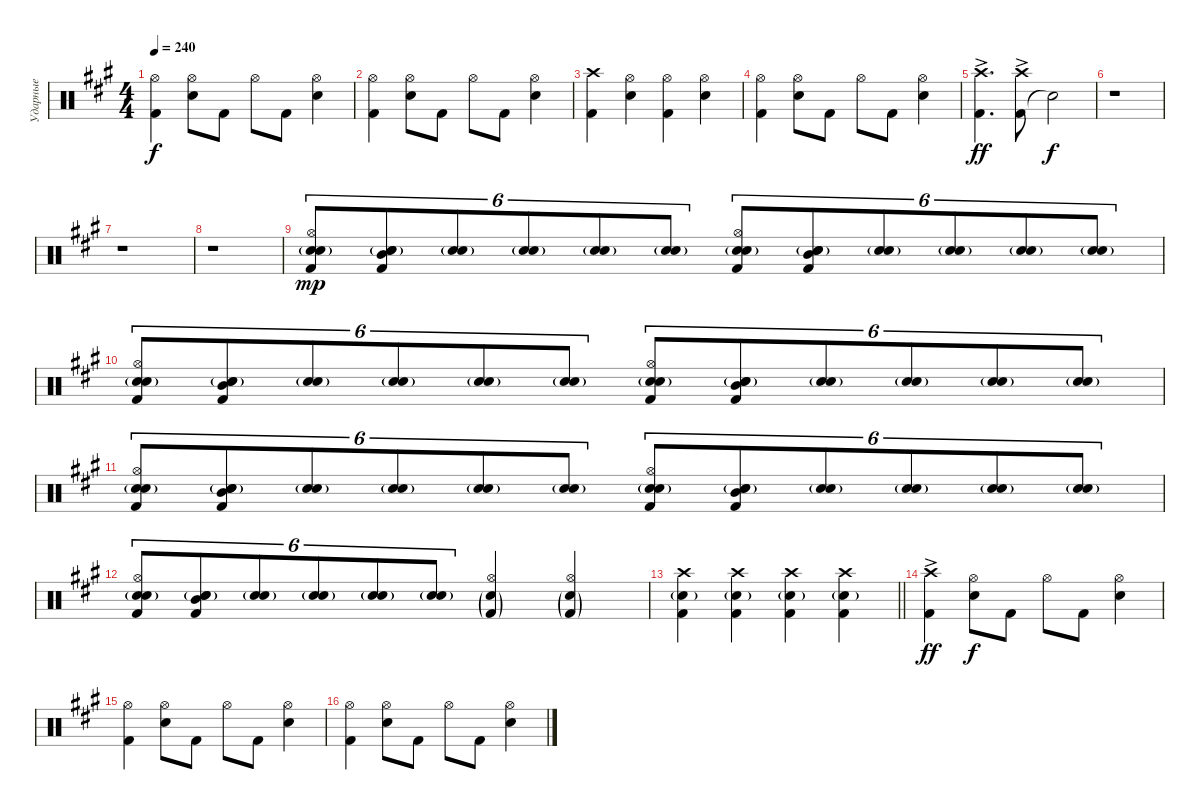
\track ("Ударные" "Ударные") {instrument percussion}
\staff {score}
\articulation defaults
\ts (4 4)
\tempo 240
\clef neutral
\ks a
("Kick (hit) 2" "Hi-Hat (open)").4{dy f} ("Snare (hit) 2" "Hi-Hat (open)").8 "Kick (hit) 2".8 "Hi-Hat (open)".8 "Kick (hit) 2".8 ("Snare (hit) 2" "Hi-Hat (open)").4 |
("Kick (hit) 2" "Hi-Hat (open)").4 ("Snare (hit) 2" "Hi-Hat (open)").8 "Kick (hit) 2".8 "Hi-Hat (open)".8 "Kick (hit) 2".8 ("Snare (hit) 2" "Hi-Hat (open)").4 |
("Kick (hit) 2" "Crash high (hit)").4 ("Snare (hit) 2" "Hi-Hat (open)").4 ("Kick (hit) 2" "Hi-Hat (open)").4 ("Snare (hit) 2" "Hi-Hat (open)").4 |
("Kick (hit) 2" "Hi-Hat (open)").4 ("Snare (hit) 2" "Hi-Hat (open)").8 "Kick (hit) 2".8 "Hi-Hat (open)".8 "Kick (hit) 2".8 ("Snare (hit) 2" "Hi-Hat (open)").4 |
("Kick (hit) 2" "Crash high (hit)"{ac}).4{d dy ff} ("Kick (hit) 2" "Crash high (hit)"{ac}).8 "Snare (hit)"{t}.2{dy f} |
r.1 |
r.1 |
r.1 |
("Snare (hit) 2"{g} "Electric Snare (hit)" "Hi-Hat (open)" "Kick (hit) 2").8{tu (6 4) dy mp} ("Snare (hit) 2"{g} "Electric Snare (hit)" "Mid Tom (hit)" "Kick (hit) 2").8{tu (6 4)} ("Snare (hit) 2"{g} "Electric Snare (hit)").8{tu (6 4)} ("Snare (hit) 2"{g} "Electric Snare (hit)").8{tu (6 4)} ("Snare (hit) 2"{g} "Electric Snare (hit)").8{tu (6 4)} ("Snare (hit) 2"{g} "Electric Snare (hit)").8{tu (6 4)} ("Snare (hit) 2"{g} "Electric Snare (hit)" "Hi-Hat (open)" "Kick (hit) 2").8{tu (6 4)} ("Snare (hit) 2"{g} "Electric Snare (hit)" "Mid Tom (hit)" "Kick (hit) 2").8{tu (6 4)} ("Snare (hit) 2"{g} "Electric Snare (hit)").8{tu (6 4)} ("Snare (hit) 2"{g} "Electric Snare (hit)").8{tu (6 4)} ("Snare (hit) 2"{g} "Electric Snare (hit)").8{tu (6 4)} ("Snare (hit) 2"{g} "Electric Snare (hit)").8{tu (6 4)} |
("Snare (hit) 2"{g} "Electric Snare (hit)" "Hi-Hat (open)" "Kick (hit) 2").8{tu (6 4)} ("Snare (hit) 2"{g} "Electric Snare (hit)" "Mid Tom (hit)" "Kick (hit) 2").8{tu (6 4)} ("Snare (hit) 2"{g} "Electric Snare (hit)").8{tu (6 4)} ("Snare (hit) 2"{g} "Electric Snare (hit)").8{tu (6 4)} ("Snare (hit) 2"{g} "Electric Snare (hit)").8{tu (6 4)} ("Snare (hit) 2"{g} "Electric Snare (hit)").8{tu (6 4)} ("Snare (hit) 2"{g} "Electric Snare (hit)" "Hi-Hat (open)" "Kick (hit) 2").8{tu (6 4)} ("Snare (hit) 2"{g} "Electric Snare (hit)" "Mid Tom (hit)" "Kick (hit) 2").8{tu (6 4)} ("Snare (hit) 2"{g} "Electric Snare (hit)").8{tu (6 4)} ("Snare (hit) 2"{g} "Electric Snare (hit)").8{tu (6 4)} ("Snare (hit) 2"{g} "Electric Snare (hit)").8{tu (6 4)} ("Snare (hit) 2"{g} "Electric Snare (hit)").8{tu (6 4)} |
("Snare (hit) 2"{g} "Electric Snare (hit)" "Hi-Hat (open)" "Kick (hit) 2").8{tu (6 4)} ("Snare (hit) 2"{g} "Electric Snare (hit)" "Mid Tom (hit)" "Kick (hit) 2").8{tu (6 4)} ("Snare (hit) 2"{g} "Electric Snare (hit)").8{tu (6 4)} ("Snare (hit) 2"{g} "Electric Snare (hit)").8{tu (6 4)} ("Snare (hit) 2"{g} "Electric Snare (hit)").8{tu (6 4)} ("Snare (hit) 2"{g} "Electric Snare (hit)").8{tu (6 4)} ("Snare (hit) 2"{g} "Electric Snare (hit)" "Hi-Hat (open)" "Kick (hit) 2").8{tu (6 4)} ("Snare (hit) 2"{g} "Electric Snare (hit)" "Mid Tom (hit)" "Kick (hit) 2").8{tu (6 4)} ("Snare (hit) 2"{g} "Electric Snare (hit)").8{tu (6 4)} ("Snare (hit) 2"{g} "Electric Snare (hit)").8{tu (6 4)} ("Snare (hit) 2"{g} "Electric Snare (hit)").8{tu (6 4)} ("Snare (hit) 2"{g} "Electric Snare (hit)").8{tu (6 4)} |
("Snare (hit) 2"{g} "Electric Snare (hit)" "Kick (hit) 2" "Hi-Hat (open)").8{tu (6 4)} ("Snare (hit) 2"{g} "Electric Snare (hit)" "Kick (hit) 2" "Mid Tom (hit)").8{tu (6 4)} ("Snare (hit) 2"{g} "Electric Snare (hit)").8{tu (6 4)} ("Snare (hit) 2"{g} "Electric Snare (hit)").8{tu (6 4)} ("Snare (hit) 2"{g} "Electric Snare (hit)").8{tu (6 4)} ("Snare (hit) 2"{g} "Electric Snare (hit)").8{tu (6 4)} ("Kick (hit) 2"{g} "Snare (hit) 2"{g} "Hi-Hat (open)").4 ("Kick (hit) 2"{g} "Snare (hit) 2"{g} "Hi-Hat (open)").4 |
\barLineRight lightlight
("Kick (hit) 2" "Snare (hit) 2"{g} "Crash high (hit)").4 ("Kick (hit) 2" "Snare (hit) 2"{g} "Crash high (hit)").4 ("Kick (hit) 2" "Snare (hit) 2"{g} "Crash high (hit)").4 ("Kick (hit) 2" "Snare (hit) 2"{g} "Crash high (hit)").4 |
("Kick (hit) 2" "Crash high (hit)"{ac}).4{dy ff} ("Snare (hit) 2" "Hi-Hat (open)").8{dy f} "Kick (hit) 2".8 "Hi-Hat (open)".8 "Kick (hit) 2".8 ("Snare (hit) 2" "Hi-Hat (open)").4 |
("Kick (hit) 2" "Hi-Hat (open)").4 ("Snare (hit) 2" "Hi-Hat (open)").8 "Kick (hit) 2".8 "Hi-Hat (open)".8 "Kick (hit) 2".8 ("Snare (hit) 2" "Hi-Hat (open)").4 |
("Kick (hit) 2" "Hi-Hat (open)").4 ("Snare (hit) 2" "Hi-Hat (open)").8 "Kick (hit) 2".8 "Hi-Hat (open)".8 "Kick (hit) 2".8 ("Snare (hit) 2" "Hi-Hat (open)").4
